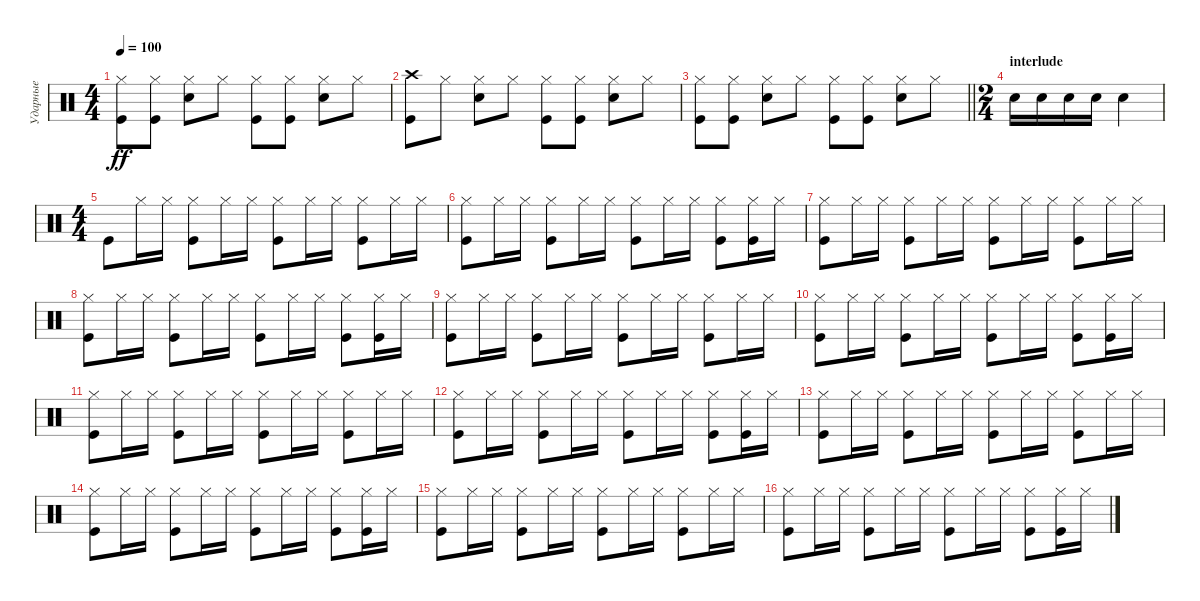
\track ("Ударные" "Ударные") {instrument percussion}
\staff {score}
\articulation defaults
\ts (4 4)
\tempo 100
\clef neutral
\ks c
("Hi-Hat (closed)" "Kick (hit)").8{dy ff} ("Hi-Hat (closed)" "Kick (hit)").8 ("Hi-Hat (closed)" "Electric Snare (hit)").8 "Hi-Hat (closed)".8 ("Hi-Hat (closed)" "Kick (hit)").8 ("Hi-Hat (closed)" "Kick (hit)").8 ("Hi-Hat (closed)" "Electric Snare (hit)").8 "Hi-Hat (closed)".8 |
("Crash high (hit)" "Kick (hit)").8 "Hi-Hat (closed)".8 ("Hi-Hat (closed)" "Electric Snare (hit)").8 "Hi-Hat (closed)".8 ("Hi-Hat (closed)" "Kick (hit)").8 ("Hi-Hat (closed)" "Kick (hit)").8 ("Hi-Hat (closed)" "Electric Snare (hit)").8 "Hi-Hat (closed)".8 |
\barLineRight lightlight
("Hi-Hat (closed)" "Kick (hit)").8 ("Hi-Hat (closed)" "Kick (hit)").8 ("Hi-Hat (closed)" "Electric Snare (hit)").8 "Hi-Hat (closed)".8 ("Hi-Hat (closed)" "Kick (hit)").8 ("Hi-Hat (closed)" "Kick (hit)").8 ("Hi-Hat (closed)" "Electric Snare (hit)").8 "Hi-Hat (closed)".8 |
\ts (2 4)
\section ("" "interlude")
"Electric Snare (hit)".16 "Electric Snare (hit)".16 "Electric Snare (hit)".16 "Electric Snare (hit)".16 "Electric Snare (hit)".4 |
\ts (4 4)
"Kick (hit)".8 "Hi-Hat (closed)".16 "Hi-Hat (closed)".16 ("Hi-Hat (closed)" "Kick (hit)").8 "Hi-Hat (closed)".16 "Hi-Hat (closed)".16 ("Hi-Hat (closed)" "Kick (hit)").8 "Hi-Hat (closed)".16 "Hi-Hat (closed)".16 ("Hi-Hat (closed)" "Kick (hit)").8 "Hi-Hat (closed)".16 "Hi-Hat (closed)".16 |
("Hi-Hat (closed)" "Kick (hit)").8 "Hi-Hat (closed)".16 "Hi-Hat (closed)".16 ("Hi-Hat (closed)" "Kick (hit)").8 "Hi-Hat (closed)".16 "Hi-Hat (closed)".16 ("Hi-Hat (closed)" "Kick (hit)").8 "Hi-Hat (closed)".16 "Hi-Hat (closed)".16 ("Hi-Hat (closed)" "Kick (hit)").8 ("Hi-Hat (closed)" "Kick (hit)").16 "Hi-Hat (closed)".16 |
("Hi-Hat (closed)" "Kick (hit)").8 "Hi-Hat (closed)".16 "Hi-Hat (closed)".16 ("Hi-Hat (closed)" "Kick (hit)").8 "Hi-Hat (closed)".16 "Hi-Hat (closed)".16 ("Hi-Hat (closed)" "Kick (hit)").8 "Hi-Hat (closed)".16 "Hi-Hat (closed)".16 ("Hi-Hat (closed)" "Kick (hit)").8 "Hi-Hat (closed)".16 "Hi-Hat (closed)".16 |
("Hi-Hat (closed)" "Kick (hit)").8 "Hi-Hat (closed)".16 "Hi-Hat (closed)".16 ("Hi-Hat (closed)" "Kick (hit)").8 "Hi-Hat (closed)".16 "Hi-Hat (closed)".16 ("Hi-Hat (closed)" "Kick (hit)").8 "Hi-Hat (closed)".16 "Hi-Hat (closed)".16 ("Hi-Hat (closed)" "Kick (hit)").8 ("Hi-Hat (closed)" "Kick (hit)").16 "Hi-Hat (closed)".16 |
("Hi-Hat (closed)" "Kick (hit)").8 "Hi-Hat (closed)".16 "Hi-Hat (closed)".16 ("Hi-Hat (closed)" "Kick (hit)").8 "Hi-Hat (closed)".16 "Hi-Hat (closed)".16 ("Hi-Hat (closed)" "Kick (hit)").8 "Hi-Hat (closed)".16 "Hi-Hat (closed)".16 ("Hi-Hat (closed)" "Kick (hit)").8 "Hi-Hat (closed)".16 "Hi-Hat (closed)".16 |
("Hi-Hat (closed)" "Kick (hit)").8 "Hi-Hat (closed)".16 "Hi-Hat (closed)".16 ("Hi-Hat (closed)" "Kick (hit)").8 "Hi-Hat (closed)".16 "Hi-Hat (closed)".16 ("Hi-Hat (closed)" "Kick (hit)").8 "Hi-Hat (closed)".16 "Hi-Hat (closed)".16 ("Hi-Hat (closed)" "Kick (hit)").8 ("Hi-Hat (closed)" "Kick (hit)").16 "Hi-Hat (closed)".16 |
("Hi-Hat (closed)" "Kick (hit)").8 "Hi-Hat (closed)".16 "Hi-Hat (closed)".16 ("Hi-Hat (closed)" "Kick (hit)").8 "Hi-Hat (closed)".16 "Hi-Hat (closed)".16 ("Hi-Hat (closed)" "Kick (hit)").8 "Hi-Hat (closed)".16 "Hi-Hat (closed)".16 ("Hi-Hat (closed)" "Kick (hit)").8 "Hi-Hat (closed)".16 "Hi-Hat (closed)".16 |
("Hi-Hat (closed)" "Kick (hit)").8 "Hi-Hat (closed)".16 "Hi-Hat (closed)".16 ("Hi-Hat (closed)" "Kick (hit)").8 "Hi-Hat (closed)".16 "Hi-Hat (closed)".16 ("Hi-Hat (closed)" "Kick (hit)").8 "Hi-Hat (closed)".16 "Hi-Hat (closed)".16 ("Hi-Hat (closed)" "Kick (hit)").8 ("Hi-Hat (closed)" "Kick (hit)").16 "Hi-Hat (closed)".16 |
("Hi-Hat (closed)" "Kick (hit)").8 "Hi-Hat (closed)".16 "Hi-Hat (closed)".16 ("Hi-Hat (closed)" "Kick (hit)").8 "Hi-Hat (closed)".16 "Hi-Hat (closed)".16 ("Hi-Hat (closed)" "Kick (hit)").8 "Hi-Hat (closed)".16 "Hi-Hat (closed)".16 ("Hi-Hat (closed)" "Kick (hit)").8 "Hi-Hat (closed)".16 "Hi-Hat (closed)".16 |
("Hi-Hat (closed)" "Kick (hit)").8 "Hi-Hat (closed)".16 "Hi-Hat (closed)".16 ("Hi-Hat (closed)" "Kick (hit)").8 "Hi-Hat (closed)".16 "Hi-Hat (closed)".16 ("Hi-Hat (closed)" "Kick (hit)").8 "Hi-Hat (closed)".16 "Hi-Hat (closed)".16 ("Hi-Hat (closed)" "Kick (hit)").8 ("Hi-Hat (closed)" "Kick (hit)").16 "Hi-Hat (closed)".16 |
("Hi-Hat (closed)" "Kick (hit)").8 "Hi-Hat (closed)".16 "Hi-Hat (closed)".16 ("Hi-Hat (closed)" "Kick (hit)").8 "Hi-Hat (closed)".16 "Hi-Hat (closed)".16 ("Hi-Hat (closed)" "Kick (hit)").8 "Hi-Hat (closed)".16 "Hi-Hat (closed)".16 ("Hi-Hat (closed)" "Kick (hit)").8 "Hi-Hat (closed)".16 "Hi-Hat (closed)".16 |
("Hi-Hat (closed)" "Kick (hit)").8 "Hi-Hat (closed)".16 "Hi-Hat (closed)".16 ("Hi-Hat (closed)" "Kick (hit)").8 "Hi-Hat (closed)".16 "Hi-Hat (closed)".16 ("Hi-Hat (closed)" "Kick (hit)").8 "Hi-Hat (closed)".16 "Hi-Hat (closed)".16 ("Hi-Hat (closed)" "Kick (hit)").8 ("Hi-Hat (closed)" "Kick (hit)").16 "Hi-Hat (closed)".16
